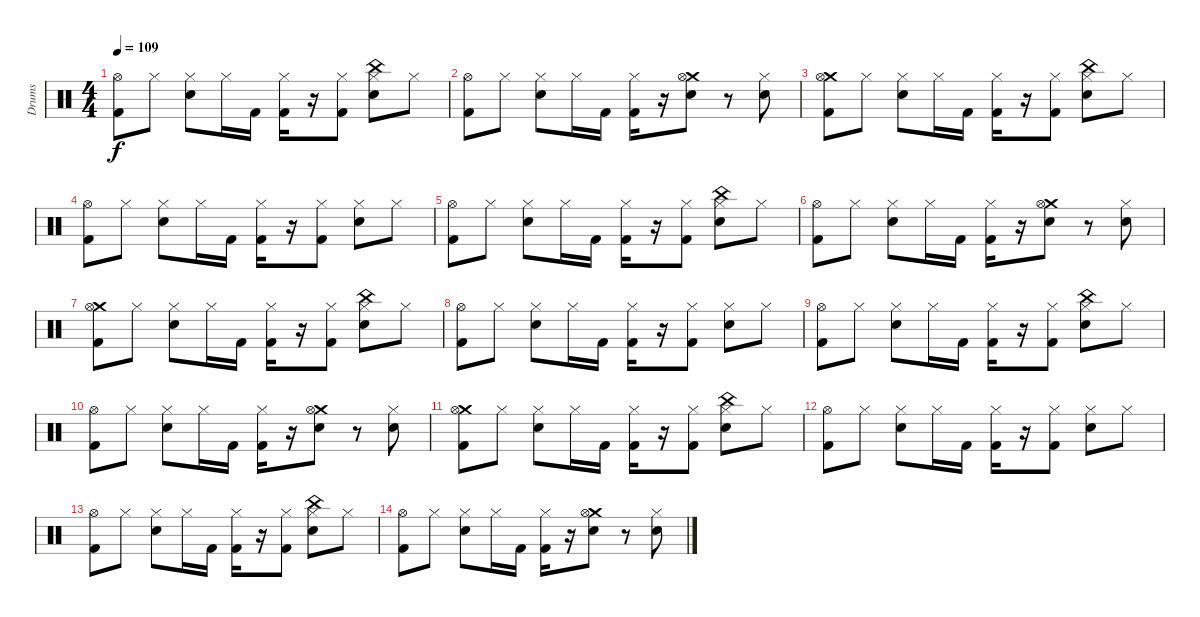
\track ("Drums" "Drums") {instrument percussion}
\staff {score}
\articulation defaults
\ts (4 4)
\tempo 109
\clef neutral
\ks c
("Hi-Hat (open)" "Kick (hit) 2").8{dy f} "Hi-Hat (closed)".8 ("Hi-Hat (closed)" "Snare (hit) 2").8 "Hi-Hat (closed)".16 "Kick (hit) 2".16 ("Hi-Hat (closed)" "Kick (hit) 2").16 r.16 ("Hi-Hat (closed)" "Kick (hit) 2").8 ("China (hit)" "Hi-Hat (closed)" "Snare (hit) 2").8 "Hi-Hat (closed)".8 |
("Hi-Hat (open)" "Kick (hit) 2").8 "Hi-Hat (closed)".8 ("Hi-Hat (closed)" "Snare (hit) 2").8 "Hi-Hat (closed)".16 "Kick (hit) 2".16 ("Hi-Hat (closed)" "Kick (hit) 2").16 r.16 ("Crash medium (hit)" "Hi-Hat (open)" "Snare (hit) 2").8 r.8 ("Snare (hit) 2" "Hi-Hat (closed)").8 |
("Crash medium (hit)" "Hi-Hat (open)" "Kick (hit) 2").8 "Hi-Hat (closed)".8 ("Hi-Hat (closed)" "Snare (hit) 2").8 "Hi-Hat (closed)".16 "Kick (hit) 2".16 ("Hi-Hat (closed)" "Kick (hit) 2").16 r.16 ("Hi-Hat (closed)" "Kick (hit) 2").8 ("China (hit)" "Hi-Hat (closed)" "Snare (hit) 2").8 "Hi-Hat (closed)".8 |
("Hi-Hat (open)" "Kick (hit) 2").8 "Hi-Hat (closed)".8 ("Hi-Hat (closed)" "Snare (hit) 2").8 "Hi-Hat (closed)".16 "Kick (hit) 2".16 ("Hi-Hat (closed)" "Kick (hit) 2").16 r.16 ("Hi-Hat (closed)" "Kick (hit) 2").8 ("Hi-Hat (closed)" "Snare (hit) 2").8 "Hi-Hat (closed)".8 |
("Hi-Hat (open)" "Kick (hit) 2").8 "Hi-Hat (closed)".8 ("Hi-Hat (closed)" "Snare (hit) 2").8 "Hi-Hat (closed)".16 "Kick (hit) 2".16 ("Hi-Hat (closed)" "Kick (hit) 2").16 r.16 ("Hi-Hat (closed)" "Kick (hit) 2").8 ("China (hit)" "Hi-Hat (closed)" "Snare (hit) 2").8 "Hi-Hat (closed)".8 |
("Hi-Hat (open)" "Kick (hit) 2").8 "Hi-Hat (closed)".8 ("Hi-Hat (closed)" "Snare (hit) 2").8 "Hi-Hat (closed)".16 "Kick (hit) 2".16 ("Hi-Hat (closed)" "Kick (hit) 2").16 r.16 ("Crash medium (hit)" "Hi-Hat (open)" "Snare (hit) 2").8 r.8 ("Snare (hit) 2" "Hi-Hat (closed)").8 |
("Crash medium (hit)" "Hi-Hat (open)" "Kick (hit) 2").8{volume 13} "Hi-Hat (closed)".8 ("Hi-Hat (closed)" "Snare (hit) 2").8 "Hi-Hat (closed)".16 "Kick (hit) 2".16 ("Hi-Hat (closed)" "Kick (hit) 2").16 r.16 ("Hi-Hat (closed)" "Kick (hit) 2").8 ("China (hit)" "Hi-Hat (closed)" "Snare (hit) 2").8 "Hi-Hat (closed)".8 |
("Hi-Hat (open)" "Kick (hit) 2").8 "Hi-Hat (closed)".8 ("Hi-Hat (closed)" "Snare (hit) 2").8 "Hi-Hat (closed)".16 "Kick (hit) 2".16 ("Hi-Hat (closed)" "Kick (hit) 2").16 r.16 ("Hi-Hat (closed)" "Kick (hit) 2").8 ("Hi-Hat (closed)" "Snare (hit) 2").8 "Hi-Hat (closed)".8 |
("Hi-Hat (open)" "Kick (hit) 2").8{volume 10} "Hi-Hat (closed)".8 ("Hi-Hat (closed)" "Snare (hit) 2").8 "Hi-Hat (closed)".16 "Kick (hit) 2".16 ("Hi-Hat (closed)" "Kick (hit) 2").16 r.16 ("Hi-Hat (closed)" "Kick (hit) 2").8 ("China (hit)" "Hi-Hat (closed)" "Snare (hit) 2").8 "Hi-Hat (closed)".8 |
("Hi-Hat (open)" "Kick (hit) 2").8 "Hi-Hat (closed)".8 ("Hi-Hat (closed)" "Snare (hit) 2").8 "Hi-Hat (closed)".16 "Kick (hit) 2".16 ("Hi-Hat (closed)" "Kick (hit) 2").16 r.16 ("Crash medium (hit)" "Hi-Hat (open)" "Snare (hit) 2").8 r.8 ("Snare (hit) 2" "Hi-Hat (closed)").8 |
("Crash medium (hit)" "Hi-Hat (open)" "Kick (hit) 2").8{volume 7} "Hi-Hat (closed)".8 ("Hi-Hat (closed)" "Snare (hit) 2").8 "Hi-Hat (closed)".16 "Kick (hit) 2".16 ("Hi-Hat (closed)" "Kick (hit) 2").16 r.16 ("Hi-Hat (closed)" "Kick (hit) 2").8 ("China (hit)" "Hi-Hat (closed)" "Snare (hit) 2").8 "Hi-Hat (closed)".8 |
("Hi-Hat (open)" "Kick (hit) 2").8 "Hi-Hat (closed)".8 ("Hi-Hat (closed)" "Snare (hit) 2").8 "Hi-Hat (closed)".16 "Kick (hit) 2".16 ("Hi-Hat (closed)" "Kick (hit) 2").16 r.16 ("Hi-Hat (closed)" "Kick (hit) 2").8 ("Hi-Hat (closed)" "Snare (hit) 2").8 "Hi-Hat (closed)".8 |
("Hi-Hat (open)" "Kick (hit) 2").8{volume 4} "Hi-Hat (closed)".8 ("Hi-Hat (closed)" "Snare (hit) 2").8 "Hi-Hat (closed)".16 "Kick (hit) 2".16 ("Hi-Hat (closed)" "Kick (hit) 2").16 r.16 ("Hi-Hat (closed)" "Kick (hit) 2").8 ("China (hit)" "Hi-Hat (closed)" "Snare (hit) 2").8 "Hi-Hat (closed)".8 |
("Hi-Hat (open)" "Kick (hit) 2").8 "Hi-Hat (closed)".8 ("Hi-Hat (closed)" "Snare (hit) 2").8 "Hi-Hat (closed)".16 "Kick (hit) 2".16 ("Hi-Hat (closed)" "Kick (hit) 2").16 r.16 ("Crash medium (hit)" "Hi-Hat (open)" "Snare (hit) 2").8 r.8 ("Snare (hit) 2" "Hi-Hat (closed)").8
